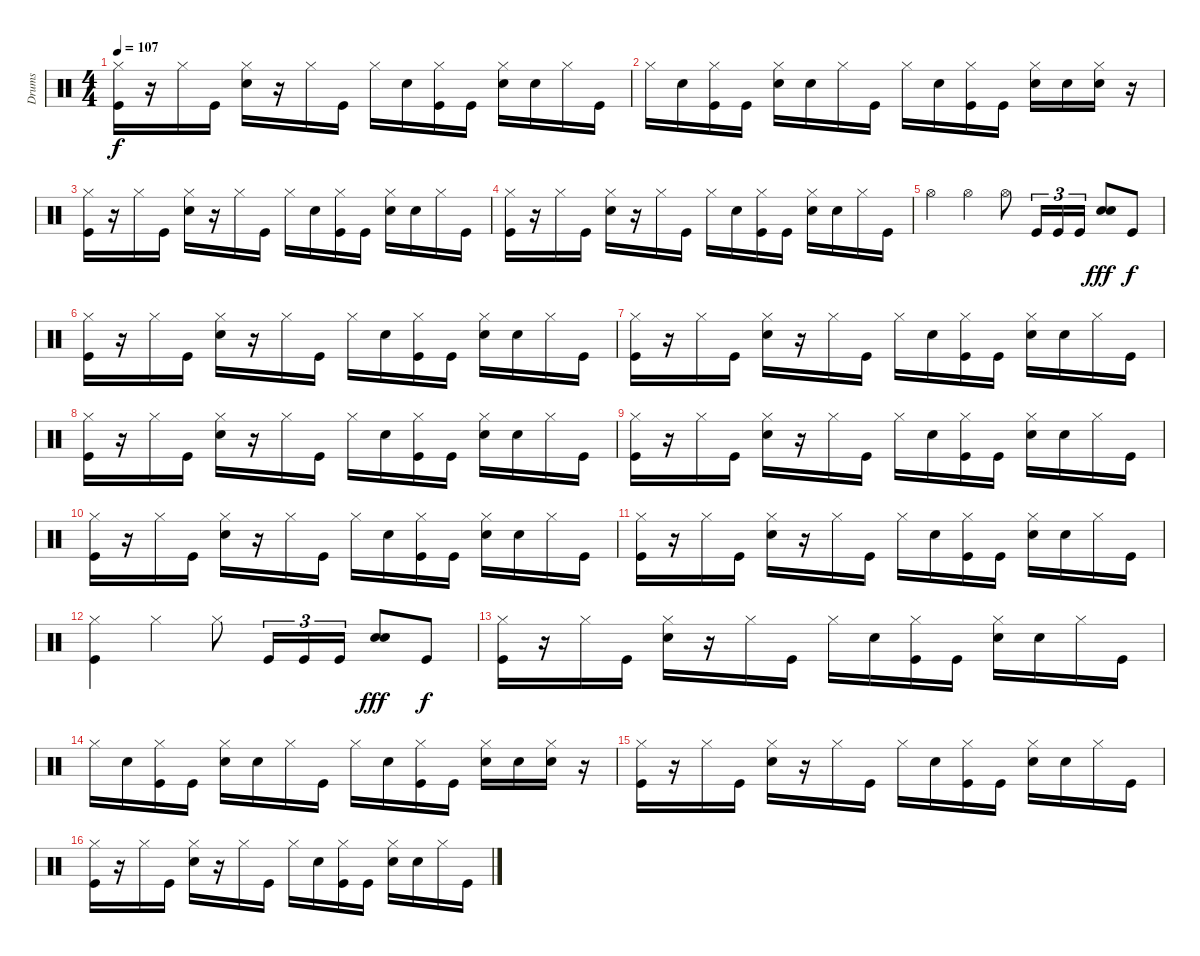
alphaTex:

\track ("Drums" "Drums") {instrument percussion}
\staff {score}
\articulation defaults
\ts (4 4)
\tempo 107
\clef neutral
\ks c
("Hi-Hat (closed)" "Kick (hit)").16{dy f} r.16 "Hi-Hat (closed)".16 "Kick (hit)".16 ("Hi-Hat (closed)" "Snare (hit) 2").16 r.16 "Hi-Hat (closed)".16 "Kick (hit)".16 "Hi-Hat (closed)".16 "Snare (hit) 2".16 ("Hi-Hat (closed)" "Kick (hit)").16 "Kick (hit)".16 ("Hi-Hat (closed)" "Snare (hit) 2").16 "Snare (hit) 2".16 "Hi-Hat (closed)".16 "Kick (hit)".16 |
"Hi-Hat (closed)".16 "Snare (hit) 2".16 ("Hi-Hat (closed)" "Kick (hit)").16 "Kick (hit)".16 ("Hi-Hat (closed)" "Snare (hit) 2").16 "Snare (hit) 2".16 "Hi-Hat (closed)".16 "Kick (hit)".16 "Hi-Hat (closed)".16 "Snare (hit) 2".16 ("Hi-Hat (closed)" "Kick (hit)").16 "Kick (hit)".16 ("Hi-Hat (closed)" "Snare (hit) 2").16 "Snare (hit) 2".16 ("Hi-Hat (closed)" "Snare (hit) 2").16 r.16 |
("Hi-Hat (closed)" "Kick (hit)").16 r.16 "Hi-Hat (closed)".16 "Kick (hit)".16 ("Hi-Hat (closed)" "Snare (hit) 2").16 r.16 "Hi-Hat (closed)".16 "Kick (hit)".16 "Hi-Hat (closed)".16 "Snare (hit) 2".16 ("Hi-Hat (closed)" "Kick (hit)").16 "Kick (hit)".16 ("Hi-Hat (closed)" "Snare (hit) 2").16 "Snare (hit) 2".16 "Hi-Hat (closed)".16 "Kick (hit)".16 |
("Hi-Hat (closed)" "Kick (hit)").16 r.16 "Hi-Hat (closed)".16 "Kick (hit)".16 ("Hi-Hat (closed)" "Snare (hit) 2").16 r.16 "Hi-Hat (closed)".16 "Kick (hit)".16 "Hi-Hat (closed)".16 "Snare (hit) 2".16 ("Hi-Hat (closed)" "Kick (hit)").16 "Kick (hit)".16 ("Hi-Hat (closed)" "Snare (hit) 2").16 "Snare (hit) 2".16 "Hi-Hat (closed)".16 "Kick (hit)".16 |
"Hi-Hat (open)".4 "Hi-Hat (open)".4 "Hi-Hat (open)".8 "Kick (hit)".16{tu (3 2)} "Kick (hit)".16{tu (3 2)} "Kick (hit)".16{tu (3 2)} ("Snare (hit) 2" "Snare (hit) 2").8{dy fff} "Kick (hit)".8{dy f} |
("Hi-Hat (closed)" "Kick (hit)").16 r.16 "Hi-Hat (closed)".16 "Kick (hit)".16 ("Hi-Hat (closed)" "Snare (hit) 2").16 r.16 "Hi-Hat (closed)".16 "Kick (hit)".16 "Hi-Hat (closed)".16 "Snare (hit) 2".16 ("Hi-Hat (closed)" "Kick (hit)").16 "Kick (hit)".16 ("Hi-Hat (closed)" "Snare (hit) 2").16 "Snare (hit) 2".16 "Hi-Hat (closed)".16 "Kick (hit)".16 |
("Hi-Hat (closed)" "Kick (hit)").16 r.16 "Hi-Hat (closed)".16 "Kick (hit)".16 ("Hi-Hat (closed)" "Snare (hit) 2").16 r.16 "Hi-Hat (closed)".16 "Kick (hit)".16 "Hi-Hat (closed)".16 "Snare (hit) 2".16 ("Hi-Hat (closed)" "Kick (hit)").16 "Kick (hit)".16 ("Hi-Hat (closed)" "Snare (hit) 2").16 "Snare (hit) 2".16 "Hi-Hat (closed)".16 "Kick (hit)".16 |
("Hi-Hat (closed)" "Kick (hit)").16 r.16 "Hi-Hat (closed)".16 "Kick (hit)".16 ("Hi-Hat (closed)" "Snare (hit) 2").16 r.16 "Hi-Hat (closed)".16 "Kick (hit)".16 "Hi-Hat (closed)".16 "Snare (hit) 2".16 ("Hi-Hat (closed)" "Kick (hit)").16 "Kick (hit)".16 ("Hi-Hat (closed)" "Snare (hit) 2").16 "Snare (hit) 2".16 "Hi-Hat (closed)".16 "Kick (hit)".16 |
("Hi-Hat (closed)" "Kick (hit)").16 r.16 "Hi-Hat (closed)".16 "Kick (hit)".16 ("Hi-Hat (closed)" "Snare (hit) 2").16 r.16 "Hi-Hat (closed)".16 "Kick (hit)".16 "Hi-Hat (closed)".16 "Snare (hit) 2".16 ("Hi-Hat (closed)" "Kick (hit)").16 "Kick (hit)".16 ("Hi-Hat (closed)" "Snare (hit) 2").16 "Snare (hit) 2".16 "Hi-Hat (closed)".16 "Kick (hit)".16 |
("Hi-Hat (closed)" "Kick (hit)").16 r.16 "Hi-Hat (closed)".16 "Kick (hit)".16 ("Hi-Hat (closed)" "Snare (hit) 2").16 r.16 "Hi-Hat (closed)".16 "Kick (hit)".16 "Hi-Hat (closed)".16 "Snare (hit) 2".16 ("Hi-Hat (closed)" "Kick (hit)").16 "Kick (hit)".16 ("Hi-Hat (closed)" "Snare (hit) 2").16 "Snare (hit) 2".16 "Hi-Hat (closed)".16 "Kick (hit)".16 |
("Hi-Hat (closed)" "Kick (hit)").16 r.16 "Hi-Hat (closed)".16 "Kick (hit)".16 ("Hi-Hat (closed)" "Snare (hit) 2").16 r.16 "Hi-Hat (closed)".16 "Kick (hit)".16 "Hi-Hat (closed)".16 "Snare (hit) 2".16 ("Hi-Hat (closed)" "Kick (hit)").16 "Kick (hit)".16 ("Hi-Hat (closed)" "Snare (hit) 2").16 "Snare (hit) 2".16 "Hi-Hat (closed)".16 "Kick (hit)".16 |
("Hi-Hat (closed)" "Kick (hit)").4 "Hi-Hat (closed)".4 "Hi-Hat (closed)".8 "Kick (hit)".16{tu (3 2)} "Kick (hit)".16{tu (3 2)} "Kick (hit)".16{tu (3 2)} ("Snare (hit) 2" "Snare (hit) 2").8{dy fff} "Kick (hit)".8{dy f} |
("Hi-Hat (closed)" "Kick (hit)").16 r.16 "Hi-Hat (closed)".16 "Kick (hit)".16 ("Hi-Hat (closed)" "Snare (hit) 2").16 r.16 "Hi-Hat (closed)".16 "Kick (hit)".16 "Hi-Hat (closed)".16 "Snare (hit) 2".16 ("Hi-Hat (closed)" "Kick (hit)").16 "Kick (hit)".16 ("Hi-Hat (closed)" "Snare (hit) 2").16 "Snare (hit) 2".16 "Hi-Hat (closed)".16 "Kick (hit)".16 |
"Hi-Hat (closed)".16 "Snare (hit) 2".16 ("Hi-Hat (closed)" "Kick (hit)").16 "Kick (hit)".16 ("Hi-Hat (closed)" "Snare (hit) 2").16 "Snare (hit) 2".16 "Hi-Hat (closed)".16 "Kick (hit)".16 "Hi-Hat (closed)".16 "Snare (hit) 2".16 ("Hi-Hat (closed)" "Kick (hit)").16 "Kick (hit)".16 ("Hi-Hat (closed)" "Snare (hit) 2").16 "Snare (hit) 2".16 ("Hi-Hat (closed)" "Snare (hit) 2").16 r.16 |
("Hi-Hat (closed)" "Kick (hit)").16 r.16 "Hi-Hat (closed)".16 "Kick (hit)".16 ("Hi-Hat (closed)" "Snare (hit) 2").16 r.16 "Hi-Hat (closed)".16 "Kick (hit)".16 "Hi-Hat (closed)".16 "Snare (hit) 2".16 ("Hi-Hat (closed)" "Kick (hit)").16 "Kick (hit)".16 ("Hi-Hat (closed)" "Snare (hit) 2").16 "Snare (hit) 2".16 "Hi-Hat (closed)".16 "Kick (hit)".16 |
("Hi-Hat (closed)" "Kick (hit)").16 r.16 "Hi-Hat (closed)".16 "Kick (hit)".16 ("Hi-Hat (closed)" "Snare (hit) 2").16 r.16 "Hi-Hat (closed)".16 "Kick (hit)".16 "Hi-Hat (closed)".16 "Snare (hit) 2".16 ("Hi-Hat (closed)" "Kick (hit)").16 "Kick (hit)".16 ("Hi-Hat (closed)" "Snare (hit) 2").16 "Snare (hit) 2".16 "Hi-Hat (closed)".16 "Kick (hit)".16
